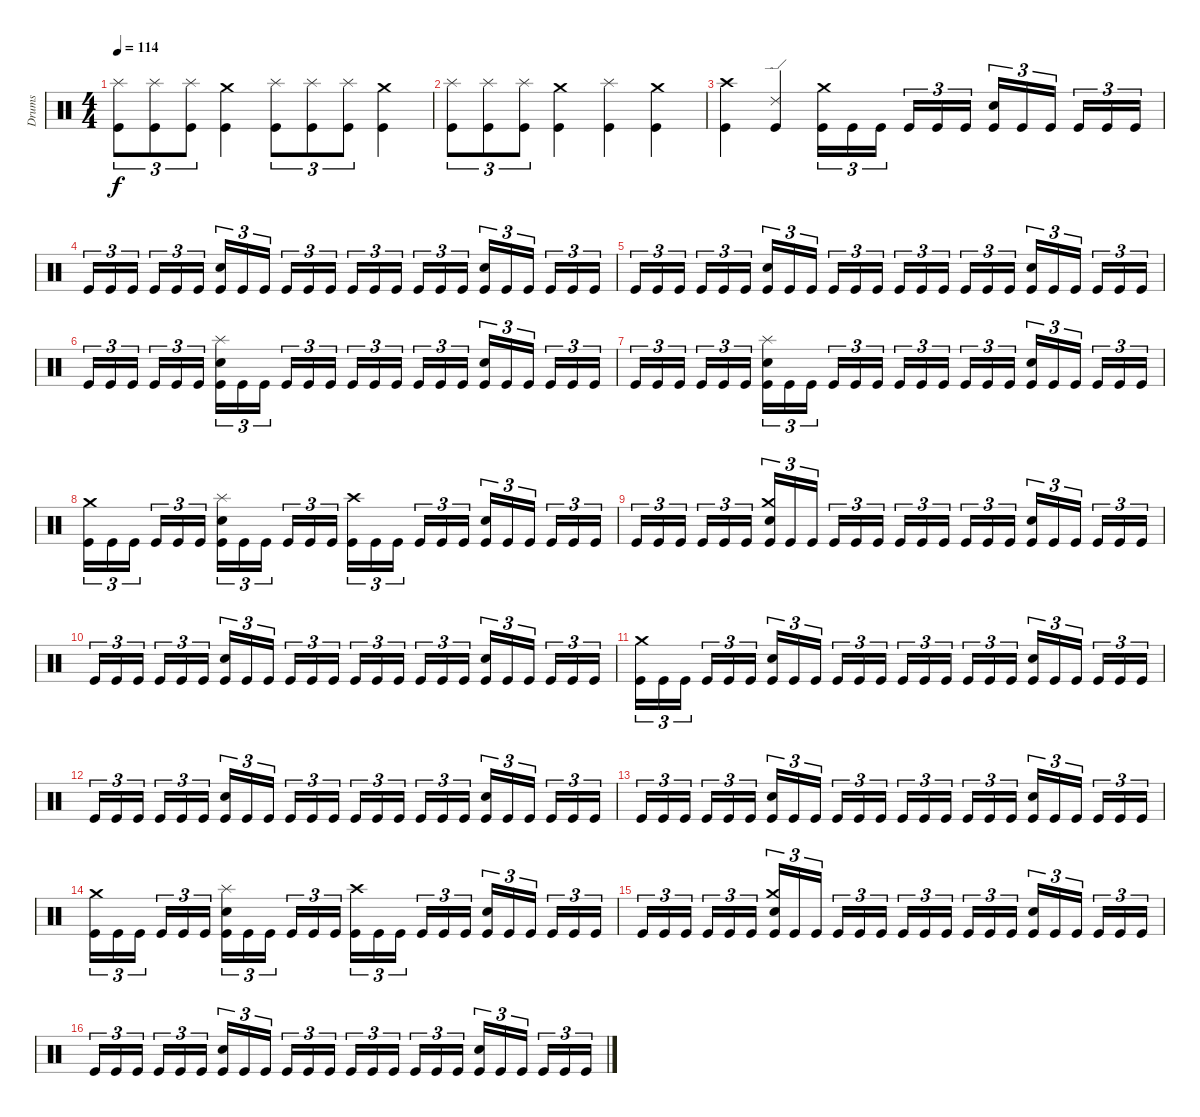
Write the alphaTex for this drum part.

\track ("Drums" "Drums") {instrument percussion}
\staff {score}
\articulation defaults
\ts (4 4)
\tempo 114
\clef neutral
\ks c
("Splash (hit)" "Kick (hit)").8{tu (3 2) dy f} ("Splash (hit)" "Kick (hit)").8{tu (3 2)} ("Splash (hit)" "Kick (hit)").8{tu (3 2)} ("Crash medium (hit)" "Kick (hit)").4 ("Splash (hit)" "Kick (hit)").8{tu (3 2)} ("Splash (hit)" "Kick (hit)").8{tu (3 2)} ("Splash (hit)" "Kick (hit)").8{tu (3 2)} ("Crash medium (hit)" "Kick (hit)").4 |
("Splash (hit)" "Kick (hit)").8{tu (3 2)} ("Splash (hit)" "Kick (hit)").8{tu (3 2)} ("Splash (hit)" "Kick (hit)").8{tu (3 2)} ("Crash medium (hit)" "Kick (hit)").4 ("Splash (hit)" "Kick (hit)").4 ("Crash medium (hit)" "Kick (hit)").4 |
("Crash high (hit)" "Kick (hit)").4 ("Ride (edge) 2" "Kick (hit)").4 ("Crash medium (hit)" "Kick (hit)").16{tu (3 2)} "Kick (hit)".16{tu (3 2)} "Kick (hit)".16{tu (3 2)} "Kick (hit)".16{tu (3 2)} "Kick (hit)".16{tu (3 2)} "Kick (hit)".16{tu (3 2)} ("Snare (hit) 2" "Kick (hit)").16{tu (3 2)} "Kick (hit)".16{tu (3 2)} "Kick (hit)".16{tu (3 2)} "Kick (hit)".16{tu (3 2)} "Kick (hit)".16{tu (3 2)} "Kick (hit)".16{tu (3 2)} |
"Kick (hit)".16{tu (3 2)} "Kick (hit)".16{tu (3 2)} "Kick (hit)".16{tu (3 2)} "Kick (hit)".16{tu (3 2)} "Kick (hit)".16{tu (3 2)} "Kick (hit)".16{tu (3 2)} ("Snare (hit) 2" "Kick (hit)").16{tu (3 2)} "Kick (hit)".16{tu (3 2)} "Kick (hit)".16{tu (3 2)} "Kick (hit)".16{tu (3 2)} "Kick (hit)".16{tu (3 2)} "Kick (hit)".16{tu (3 2)} "Kick (hit)".16{tu (3 2)} "Kick (hit)".16{tu (3 2)} "Kick (hit)".16{tu (3 2)} "Kick (hit)".16{tu (3 2)} "Kick (hit)".16{tu (3 2)} "Kick (hit)".16{tu (3 2)} ("Snare (hit) 2" "Kick (hit)").16{tu (3 2)} "Kick (hit)".16{tu (3 2)} "Kick (hit)".16{tu (3 2)} "Kick (hit)".16{tu (3 2)} "Kick (hit)".16{tu (3 2)} "Kick (hit)".16{tu (3 2)} |
"Kick (hit)".16{tu (3 2)} "Kick (hit)".16{tu (3 2)} "Kick (hit)".16{tu (3 2)} "Kick (hit)".16{tu (3 2)} "Kick (hit)".16{tu (3 2)} "Kick (hit)".16{tu (3 2)} ("Snare (hit) 2" "Kick (hit)").16{tu (3 2)} "Kick (hit)".16{tu (3 2)} "Kick (hit)".16{tu (3 2)} "Kick (hit)".16{tu (3 2)} "Kick (hit)".16{tu (3 2)} "Kick (hit)".16{tu (3 2)} "Kick (hit)".16{tu (3 2)} "Kick (hit)".16{tu (3 2)} "Kick (hit)".16{tu (3 2)} "Kick (hit)".16{tu (3 2)} "Kick (hit)".16{tu (3 2)} "Kick (hit)".16{tu (3 2)} ("Snare (hit) 2" "Kick (hit)").16{tu (3 2)} "Kick (hit)".16{tu (3 2)} "Kick (hit)".16{tu (3 2)} "Kick (hit)".16{tu (3 2)} "Kick (hit)".16{tu (3 2)} "Kick (hit)".16{tu (3 2)} |
"Kick (hit)".16{tu (3 2)} "Kick (hit)".16{tu (3 2)} "Kick (hit)".16{tu (3 2)} "Kick (hit)".16{tu (3 2)} "Kick (hit)".16{tu (3 2)} "Kick (hit)".16{tu (3 2)} ("Splash (hit)" "Snare (hit) 2" "Kick (hit)").16{tu (3 2)} "Kick (hit)".16{tu (3 2)} "Kick (hit)".16{tu (3 2)} "Kick (hit)".16{tu (3 2)} "Kick (hit)".16{tu (3 2)} "Kick (hit)".16{tu (3 2)} "Kick (hit)".16{tu (3 2)} "Kick (hit)".16{tu (3 2)} "Kick (hit)".16{tu (3 2)} "Kick (hit)".16{tu (3 2)} "Kick (hit)".16{tu (3 2)} "Kick (hit)".16{tu (3 2)} ("Snare (hit) 2" "Kick (hit)").16{tu (3 2)} "Kick (hit)".16{tu (3 2)} "Kick (hit)".16{tu (3 2)} "Kick (hit)".16{tu (3 2)} "Kick (hit)".16{tu (3 2)} "Kick (hit)".16{tu (3 2)} |
"Kick (hit)".16{tu (3 2)} "Kick (hit)".16{tu (3 2)} "Kick (hit)".16{tu (3 2)} "Kick (hit)".16{tu (3 2)} "Kick (hit)".16{tu (3 2)} "Kick (hit)".16{tu (3 2)} ("Splash (hit)" "Snare (hit) 2" "Kick (hit)").16{tu (3 2)} "Kick (hit)".16{tu (3 2)} "Kick (hit)".16{tu (3 2)} "Kick (hit)".16{tu (3 2)} "Kick (hit)".16{tu (3 2)} "Kick (hit)".16{tu (3 2)} "Kick (hit)".16{tu (3 2)} "Kick (hit)".16{tu (3 2)} "Kick (hit)".16{tu (3 2)} "Kick (hit)".16{tu (3 2)} "Kick (hit)".16{tu (3 2)} "Kick (hit)".16{tu (3 2)} ("Snare (hit) 2" "Kick (hit)").16{tu (3 2)} "Kick (hit)".16{tu (3 2)} "Kick (hit)".16{tu (3 2)} "Kick (hit)".16{tu (3 2)} "Kick (hit)".16{tu (3 2)} "Kick (hit)".16{tu (3 2)} |
("Crash medium (hit)" "Kick (hit)").16{tu (3 2)} "Kick (hit)".16{tu (3 2)} "Kick (hit)".16{tu (3 2)} "Kick (hit)".16{tu (3 2)} "Kick (hit)".16{tu (3 2)} "Kick (hit)".16{tu (3 2)} ("Splash (hit)" "Snare (hit) 2" "Kick (hit)").16{tu (3 2)} "Kick (hit)".16{tu (3 2)} "Kick (hit)".16{tu (3 2)} "Kick (hit)".16{tu (3 2)} "Kick (hit)".16{tu (3 2)} "Kick (hit)".16{tu (3 2)} ("Crash high (hit)" "Kick (hit)").16{tu (3 2)} "Kick (hit)".16{tu (3 2)} "Kick (hit)".16{tu (3 2)} "Kick (hit)".16{tu (3 2)} "Kick (hit)".16{tu (3 2)} "Kick (hit)".16{tu (3 2)} ("Snare (hit) 2" "Kick (hit)").16{tu (3 2)} "Kick (hit)".16{tu (3 2)} "Kick (hit)".16{tu (3 2)} "Kick (hit)".16{tu (3 2)} "Kick (hit)".16{tu (3 2)} "Kick (hit)".16{tu (3 2)} |
"Kick (hit)".16{tu (3 2)} "Kick (hit)".16{tu (3 2)} "Kick (hit)".16{tu (3 2)} "Kick (hit)".16{tu (3 2)} "Kick (hit)".16{tu (3 2)} "Kick (hit)".16{tu (3 2)} ("Crash medium (hit)" "Snare (hit) 2" "Kick (hit)").16{tu (3 2)} "Kick (hit)".16{tu (3 2)} "Kick (hit)".16{tu (3 2)} "Kick (hit)".16{tu (3 2)} "Kick (hit)".16{tu (3 2)} "Kick (hit)".16{tu (3 2)} "Kick (hit)".16{tu (3 2)} "Kick (hit)".16{tu (3 2)} "Kick (hit)".16{tu (3 2)} "Kick (hit)".16{tu (3 2)} "Kick (hit)".16{tu (3 2)} "Kick (hit)".16{tu (3 2)} ("Snare (hit) 2" "Kick (hit)").16{tu (3 2)} "Kick (hit)".16{tu (3 2)} "Kick (hit)".16{tu (3 2)} "Kick (hit)".16{tu (3 2)} "Kick (hit)".16{tu (3 2)} "Kick (hit)".16{tu (3 2)} |
"Kick (hit)".16{tu (3 2)} "Kick (hit)".16{tu (3 2)} "Kick (hit)".16{tu (3 2)} "Kick (hit)".16{tu (3 2)} "Kick (hit)".16{tu (3 2)} "Kick (hit)".16{tu (3 2)} ("Snare (hit) 2" "Kick (hit)").16{tu (3 2)} "Kick (hit)".16{tu (3 2)} "Kick (hit)".16{tu (3 2)} "Kick (hit)".16{tu (3 2)} "Kick (hit)".16{tu (3 2)} "Kick (hit)".16{tu (3 2)} "Kick (hit)".16{tu (3 2)} "Kick (hit)".16{tu (3 2)} "Kick (hit)".16{tu (3 2)} "Kick (hit)".16{tu (3 2)} "Kick (hit)".16{tu (3 2)} "Kick (hit)".16{tu (3 2)} ("Snare (hit) 2" "Kick (hit)").16{tu (3 2)} "Kick (hit)".16{tu (3 2)} "Kick (hit)".16{tu (3 2)} "Kick (hit)".16{tu (3 2)} "Kick (hit)".16{tu (3 2)} "Kick (hit)".16{tu (3 2)} |
("Crash medium (hit)" "Kick (hit)").16{tu (3 2)} "Kick (hit)".16{tu (3 2)} "Kick (hit)".16{tu (3 2)} "Kick (hit)".16{tu (3 2)} "Kick (hit)".16{tu (3 2)} "Kick (hit)".16{tu (3 2)} ("Snare (hit) 2" "Kick (hit)").16{tu (3 2)} "Kick (hit)".16{tu (3 2)} "Kick (hit)".16{tu (3 2)} "Kick (hit)".16{tu (3 2)} "Kick (hit)".16{tu (3 2)} "Kick (hit)".16{tu (3 2)} "Kick (hit)".16{tu (3 2)} "Kick (hit)".16{tu (3 2)} "Kick (hit)".16{tu (3 2)} "Kick (hit)".16{tu (3 2)} "Kick (hit)".16{tu (3 2)} "Kick (hit)".16{tu (3 2)} ("Snare (hit) 2" "Kick (hit)").16{tu (3 2)} "Kick (hit)".16{tu (3 2)} "Kick (hit)".16{tu (3 2)} "Kick (hit)".16{tu (3 2)} "Kick (hit)".16{tu (3 2)} "Kick (hit)".16{tu (3 2)} |
"Kick (hit)".16{tu (3 2)} "Kick (hit)".16{tu (3 2)} "Kick (hit)".16{tu (3 2)} "Kick (hit)".16{tu (3 2)} "Kick (hit)".16{tu (3 2)} "Kick (hit)".16{tu (3 2)} ("Snare (hit) 2" "Kick (hit)").16{tu (3 2)} "Kick (hit)".16{tu (3 2)} "Kick (hit)".16{tu (3 2)} "Kick (hit)".16{tu (3 2)} "Kick (hit)".16{tu (3 2)} "Kick (hit)".16{tu (3 2)} "Kick (hit)".16{tu (3 2)} "Kick (hit)".16{tu (3 2)} "Kick (hit)".16{tu (3 2)} "Kick (hit)".16{tu (3 2)} "Kick (hit)".16{tu (3 2)} "Kick (hit)".16{tu (3 2)} ("Snare (hit) 2" "Kick (hit)").16{tu (3 2)} "Kick (hit)".16{tu (3 2)} "Kick (hit)".16{tu (3 2)} "Kick (hit)".16{tu (3 2)} "Kick (hit)".16{tu (3 2)} "Kick (hit)".16{tu (3 2)} |
"Kick (hit)".16{tu (3 2)} "Kick (hit)".16{tu (3 2)} "Kick (hit)".16{tu (3 2)} "Kick (hit)".16{tu (3 2)} "Kick (hit)".16{tu (3 2)} "Kick (hit)".16{tu (3 2)} ("Snare (hit) 2" "Kick (hit)").16{tu (3 2)} "Kick (hit)".16{tu (3 2)} "Kick (hit)".16{tu (3 2)} "Kick (hit)".16{tu (3 2)} "Kick (hit)".16{tu (3 2)} "Kick (hit)".16{tu (3 2)} "Kick (hit)".16{tu (3 2)} "Kick (hit)".16{tu (3 2)} "Kick (hit)".16{tu (3 2)} "Kick (hit)".16{tu (3 2)} "Kick (hit)".16{tu (3 2)} "Kick (hit)".16{tu (3 2)} ("Snare (hit) 2" "Kick (hit)").16{tu (3 2)} "Kick (hit)".16{tu (3 2)} "Kick (hit)".16{tu (3 2)} "Kick (hit)".16{tu (3 2)} "Kick (hit)".16{tu (3 2)} "Kick (hit)".16{tu (3 2)} |
("Crash medium (hit)" "Kick (hit)").16{tu (3 2)} "Kick (hit)".16{tu (3 2)} "Kick (hit)".16{tu (3 2)} "Kick (hit)".16{tu (3 2)} "Kick (hit)".16{tu (3 2)} "Kick (hit)".16{tu (3 2)} ("Splash (hit)" "Snare (hit) 2" "Kick (hit)").16{tu (3 2)} "Kick (hit)".16{tu (3 2)} "Kick (hit)".16{tu (3 2)} "Kick (hit)".16{tu (3 2)} "Kick (hit)".16{tu (3 2)} "Kick (hit)".16{tu (3 2)} ("Crash high (hit)" "Kick (hit)").16{tu (3 2)} "Kick (hit)".16{tu (3 2)} "Kick (hit)".16{tu (3 2)} "Kick (hit)".16{tu (3 2)} "Kick (hit)".16{tu (3 2)} "Kick (hit)".16{tu (3 2)} ("Snare (hit) 2" "Kick (hit)").16{tu (3 2)} "Kick (hit)".16{tu (3 2)} "Kick (hit)".16{tu (3 2)} "Kick (hit)".16{tu (3 2)} "Kick (hit)".16{tu (3 2)} "Kick (hit)".16{tu (3 2)} |
"Kick (hit)".16{tu (3 2)} "Kick (hit)".16{tu (3 2)} "Kick (hit)".16{tu (3 2)} "Kick (hit)".16{tu (3 2)} "Kick (hit)".16{tu (3 2)} "Kick (hit)".16{tu (3 2)} ("Crash medium (hit)" "Snare (hit) 2" "Kick (hit)").16{tu (3 2)} "Kick (hit)".16{tu (3 2)} "Kick (hit)".16{tu (3 2)} "Kick (hit)".16{tu (3 2)} "Kick (hit)".16{tu (3 2)} "Kick (hit)".16{tu (3 2)} "Kick (hit)".16{tu (3 2)} "Kick (hit)".16{tu (3 2)} "Kick (hit)".16{tu (3 2)} "Kick (hit)".16{tu (3 2)} "Kick (hit)".16{tu (3 2)} "Kick (hit)".16{tu (3 2)} ("Snare (hit) 2" "Kick (hit)").16{tu (3 2)} "Kick (hit)".16{tu (3 2)} "Kick (hit)".16{tu (3 2)} "Kick (hit)".16{tu (3 2)} "Kick (hit)".16{tu (3 2)} "Kick (hit)".16{tu (3 2)} |
"Kick (hit)".16{tu (3 2)} "Kick (hit)".16{tu (3 2)} "Kick (hit)".16{tu (3 2)} "Kick (hit)".16{tu (3 2)} "Kick (hit)".16{tu (3 2)} "Kick (hit)".16{tu (3 2)} ("Snare (hit) 2" "Kick (hit)").16{tu (3 2)} "Kick (hit)".16{tu (3 2)} "Kick (hit)".16{tu (3 2)} "Kick (hit)".16{tu (3 2)} "Kick (hit)".16{tu (3 2)} "Kick (hit)".16{tu (3 2)} "Kick (hit)".16{tu (3 2)} "Kick (hit)".16{tu (3 2)} "Kick (hit)".16{tu (3 2)} "Kick (hit)".16{tu (3 2)} "Kick (hit)".16{tu (3 2)} "Kick (hit)".16{tu (3 2)} ("Snare (hit) 2" "Kick (hit)").16{tu (3 2)} "Kick (hit)".16{tu (3 2)} "Kick (hit)".16{tu (3 2)} "Kick (hit)".16{tu (3 2)} "Kick (hit)".16{tu (3 2)} "Kick (hit)".16{tu (3 2)}
